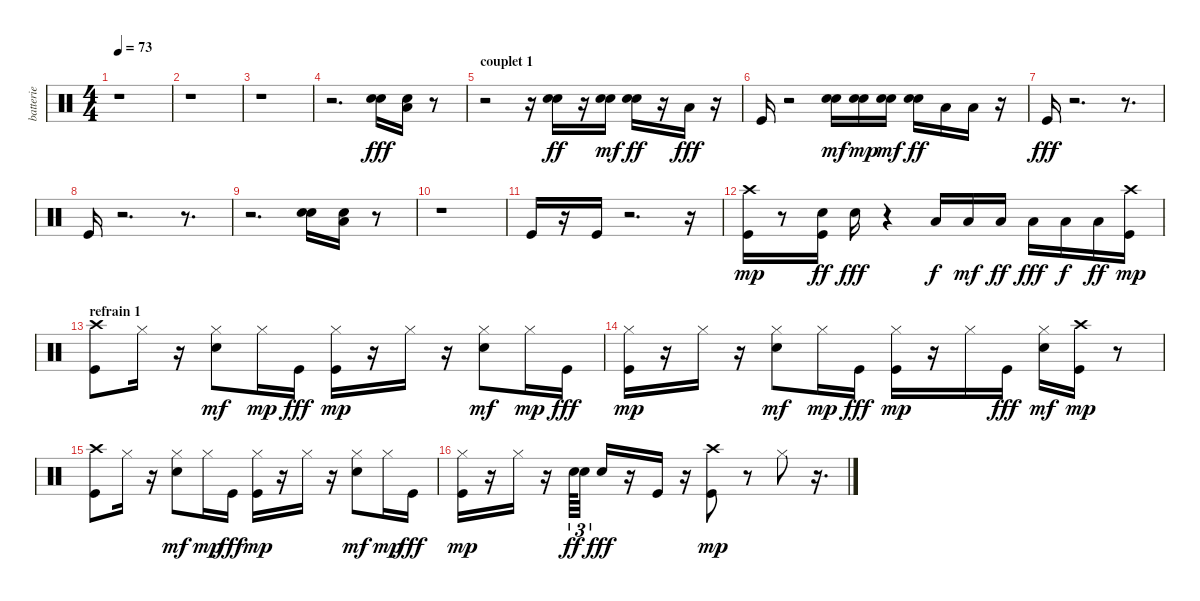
\track ("batterie" "batterie") {instrument percussion}
\staff {score}
\articulation defaults
\ts (4 4)
\tempo 73
\clef neutral
\ks c
r.1{dy fff} |
r.1 |
r.1 |
r.2{d} ("Snare (hit) 2" "Electric Snare (hit)").16 ("Electric Snare (hit)" "Low Floor Tom (hit)").16 r.8 |
\section ("" "couplet 1")
r.2 r.16 ("Snare (hit) 2" "Electric Snare (hit)").16{dy ff} r.16 ("Snare (hit) 2" "Electric Snare (hit)").16{dy mf} ("Snare (hit) 2" "Electric Snare (hit)").16{dy ff} r.16 "Low Floor Tom (hit)".16{dy fff} r.16 |
"Kick (hit)".16 r.2 ("Snare (hit) 2" "Electric Snare (hit)").16{dy mf} ("Snare (hit) 2" "Electric Snare (hit)").16{dy mp} ("Snare (hit) 2" "Electric Snare (hit)").16{dy mf} ("Snare (hit) 2" "Electric Snare (hit)").16{dy ff} "Low Floor Tom (hit)".16 "Low Floor Tom (hit)".16 r.16 |
"Kick (hit)".16{dy fff} r.2{d} r.8{d} |
"Kick (hit)".16 r.2{d} r.8{d} |
r.2{d} ("Snare (hit) 2" "Electric Snare (hit)").16 ("Electric Snare (hit)" "Low Floor Tom (hit)").16 r.8 |
r.1 |
"Kick (hit)".16 r.16 "Kick (hit)".16 r.2{d} r.16 |
("Kick (hit)" "Crash high (hit)").16{dy mp} r.8 ("Kick (hit)" "Snare (hit) 2").16{dy ff} "Snare (hit) 2".16{dy fff} r.4 "Low Floor Tom (hit)".16{dy f} "Low Floor Tom (hit)".16{dy mf} "Low Floor Tom (hit)".16{dy ff} "Low Floor Tom (hit)".16{dy fff} "Low Floor Tom (hit)".16{dy f} "Low Floor Tom (hit)".16{dy ff} ("Kick (hit)" "Crash high (hit)").16{dy mp} |
\section ("" "refrain 1")
("Kick (hit)" "Crash high (hit)").8 "Hi-Hat (closed)".16 r.16 ("Snare (hit) 2" "Hi-Hat (closed)").8{dy mf} "Hi-Hat (closed)".16{dy mp} "Kick (hit)".16{dy fff} ("Kick (hit)" "Hi-Hat (closed)").16{dy mp} r.16 "Hi-Hat (closed)".16 r.16 ("Snare (hit) 2" "Hi-Hat (closed)").8{dy mf} "Hi-Hat (closed)".16{dy mp} "Kick (hit)".16{dy fff} |
("Kick (hit)" "Hi-Hat (closed)").16{dy mp} r.16 "Hi-Hat (closed)".16 r.16 ("Snare (hit) 2" "Hi-Hat (closed)").8{dy mf} "Hi-Hat (closed)".16{dy mp} "Kick (hit)".16{dy fff} ("Kick (hit)" "Hi-Hat (closed)").16{dy mp} r.16 "Hi-Hat (closed)".16 "Kick (hit)".16{dy fff} ("Snare (hit) 2" "Hi-Hat (closed)").16{dy mf} ("Kick (hit)" "Crash high (hit)").16{dy mp} r.8 |
("Kick (hit)" "Crash high (hit)").8 "Hi-Hat (closed)".16 r.16 ("Snare (hit) 2" "Hi-Hat (closed)").8{dy mf} "Hi-Hat (closed)".16{dy mp} "Kick (hit)".16{dy fff} ("Kick (hit)" "Hi-Hat (closed)").16{dy mp} r.16 "Hi-Hat (closed)".16 r.16 ("Snare (hit) 2" "Hi-Hat (closed)").8{dy mf} "Hi-Hat (closed)".16{dy mp} "Kick (hit)".16{dy fff} |
("Kick (hit)" "Hi-Hat (closed)").16{dy mp} r.16 "Hi-Hat (closed)".16 r.16 "Snare (hit) 2".64{tu (3 2) dy ff} "Snare (hit) 2".32{tu (3 2)} "Snare (hit) 2".16{dy fff} r.16 "Kick (hit)".16 r.16 ("Kick (hit)" "Crash high (hit)").8{dy mp} r.8 "Hi-Hat (closed)".8 r.16{d}
